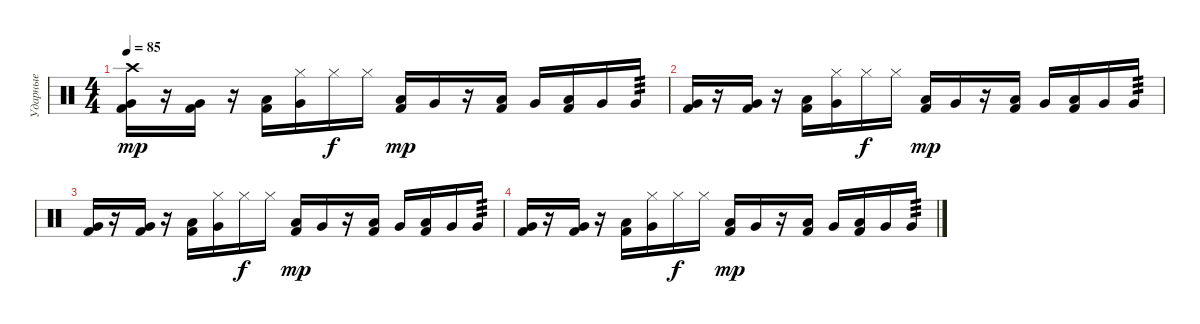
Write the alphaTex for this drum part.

\track ("Ударные" "Ударные") {instrument percussion}
\staff {score}
\articulation defaults
\ts (4 4)
\tempo 85
\clef neutral
\ks c
("Crash high (hit)" "Very Low Tom (hit)" "Kick (hit) 2").16{dy mp} r.16 ("Very Low Tom (hit)" "Kick (hit) 2").16 r.16 ("Low Tom (hit)" "Kick (hit) 2").16 ("Hi-Hat (closed)" "Very Low Tom (hit)").16 "Hi-Hat (closed)".16{dy f} "Hi-Hat (closed)".16 ("Low Tom (hit)" "Kick (hit) 2").16{dy mp} "Very Low Tom (hit)".16 r.16 ("Low Tom (hit)" "Kick (hit) 2").16 "Very Low Tom (hit)".16 ("Low Tom (hit)" "Kick (hit) 2").16 "Very Low Tom (hit)".16 "Very Low Tom (hit)".16{tp 3} |
("Very Low Tom (hit)" "Kick (hit) 2").16 r.16 ("Very Low Tom (hit)" "Kick (hit) 2").16 r.16 ("Low Tom (hit)" "Kick (hit) 2").16 ("Hi-Hat (closed)" "Very Low Tom (hit)").16 "Hi-Hat (closed)".16{dy f} "Hi-Hat (closed)".16 ("Low Tom (hit)" "Kick (hit) 2").16{dy mp} "Very Low Tom (hit)".16 r.16 ("Low Tom (hit)" "Kick (hit) 2").16 "Very Low Tom (hit)".16 ("Low Tom (hit)" "Kick (hit) 2").16 "Very Low Tom (hit)".16 "Very Low Tom (hit)".16{tp 3} |
("Very Low Tom (hit)" "Kick (hit) 2").16 r.16 ("Very Low Tom (hit)" "Kick (hit) 2").16 r.16 ("Low Tom (hit)" "Kick (hit) 2").16 ("Hi-Hat (closed)" "Very Low Tom (hit)").16 "Hi-Hat (closed)".16{dy f} "Hi-Hat (closed)".16 ("Low Tom (hit)" "Kick (hit) 2").16{dy mp} "Very Low Tom (hit)".16 r.16 ("Low Tom (hit)" "Kick (hit) 2").16 "Very Low Tom (hit)".16 ("Low Tom (hit)" "Kick (hit) 2").16 "Very Low Tom (hit)".16 "Very Low Tom (hit)".16{tp 3} |
("Very Low Tom (hit)" "Kick (hit) 2").16 r.16 ("Very Low Tom (hit)" "Kick (hit) 2").16 r.16 ("Low Tom (hit)" "Kick (hit) 2").16 ("Hi-Hat (closed)" "Very Low Tom (hit)").16 "Hi-Hat (closed)".16{dy f} "Hi-Hat (closed)".16 ("Low Tom (hit)" "Kick (hit) 2").16{dy mp} "Very Low Tom (hit)".16 r.16 ("Low Tom (hit)" "Kick (hit) 2").16 "Very Low Tom (hit)".16 ("Low Tom (hit)" "Kick (hit) 2").16 "Very Low Tom (hit)".16 "Very Low Tom (hit)".16{tp 3}
